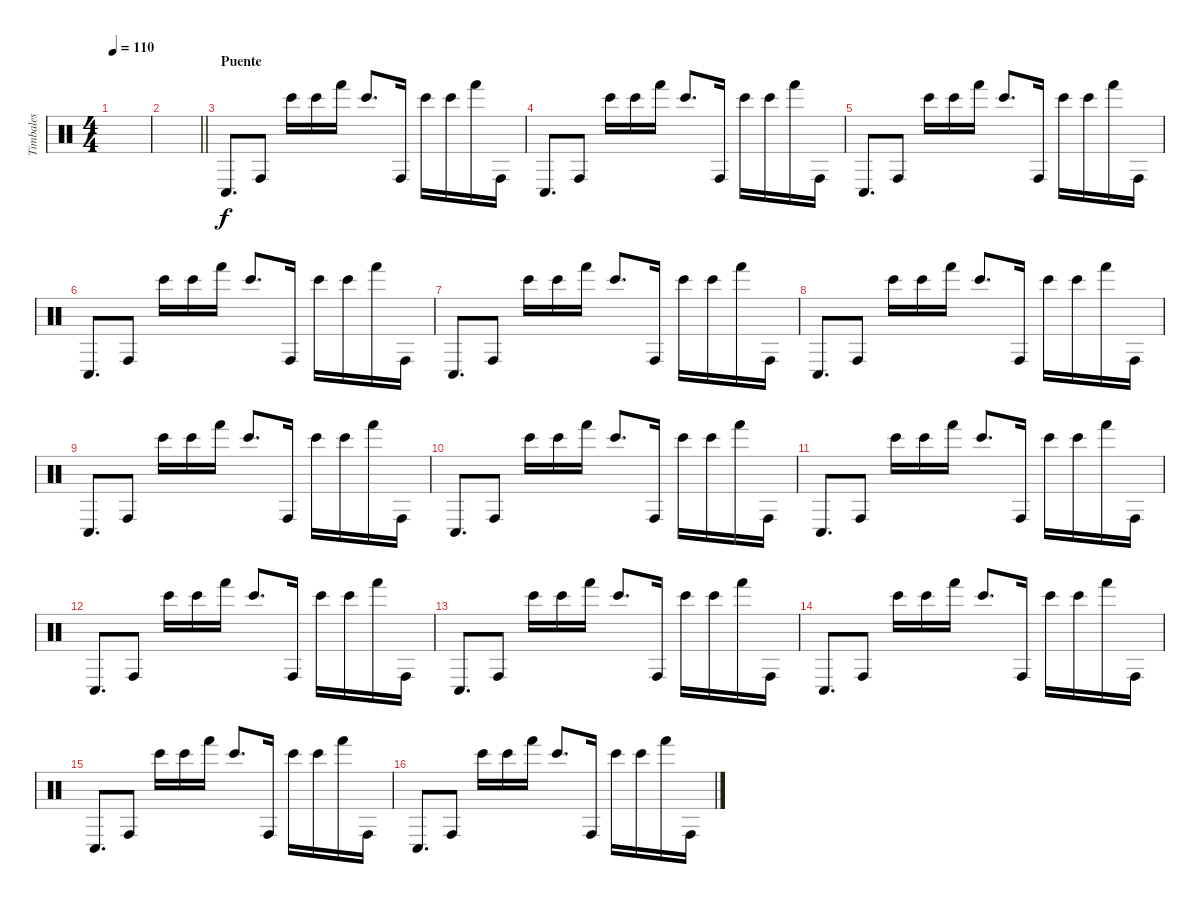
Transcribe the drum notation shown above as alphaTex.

\track ("Timbales" "Timbales") {instrument percussion}
\staff {score}
\articulation defaults
\ts (4 4)
\tempo 110
\clef neutral
\ks c
|
\barLineRight lightlight
|
\section ("" "Puente")
"Conga low (hit)".8{d} "Conga high (hit)".8 "Bongo High (hit)".16 "Bongo High (hit)".16 "Hand (hit)".16 "Bongo High (hit)".8{d} "Conga high (hit)".16 "Bongo High (hit)".16 "Bongo High (hit)".16 "Hand (hit)".16 "Conga high (hit)".16 |
"Conga low (hit)".8{d} "Conga high (hit)".8 "Bongo High (hit)".16 "Bongo High (hit)".16 "Hand (hit)".16 "Bongo High (hit)".8{d} "Conga high (hit)".16 "Bongo High (hit)".16 "Bongo High (hit)".16 "Hand (hit)".16 "Conga high (hit)".16 |
"Conga low (hit)".8{d} "Conga high (hit)".8 "Bongo High (hit)".16 "Bongo High (hit)".16 "Hand (hit)".16 "Bongo High (hit)".8{d} "Conga high (hit)".16 "Bongo High (hit)".16 "Bongo High (hit)".16 "Hand (hit)".16 "Conga high (hit)".16 |
"Conga low (hit)".8{d} "Conga high (hit)".8 "Bongo High (hit)".16 "Bongo High (hit)".16 "Hand (hit)".16 "Bongo High (hit)".8{d} "Conga high (hit)".16 "Bongo High (hit)".16 "Bongo High (hit)".16 "Hand (hit)".16 "Conga high (hit)".16 |
"Conga low (hit)".8{d} "Conga high (hit)".8 "Bongo High (hit)".16 "Bongo High (hit)".16 "Hand (hit)".16 "Bongo High (hit)".8{d} "Conga high (hit)".16 "Bongo High (hit)".16 "Bongo High (hit)".16 "Hand (hit)".16 "Conga high (hit)".16 |
"Conga low (hit)".8{d} "Conga high (hit)".8 "Bongo High (hit)".16 "Bongo High (hit)".16 "Hand (hit)".16 "Bongo High (hit)".8{d} "Conga high (hit)".16 "Bongo High (hit)".16 "Bongo High (hit)".16 "Hand (hit)".16 "Conga high (hit)".16 |
"Conga low (hit)".8{d} "Conga high (hit)".8 "Bongo High (hit)".16 "Bongo High (hit)".16 "Hand (hit)".16 "Bongo High (hit)".8{d} "Conga high (hit)".16 "Bongo High (hit)".16 "Bongo High (hit)".16 "Hand (hit)".16 "Conga high (hit)".16 |
"Conga low (hit)".8{d} "Conga high (hit)".8 "Bongo High (hit)".16 "Bongo High (hit)".16 "Hand (hit)".16 "Bongo High (hit)".8{d} "Conga high (hit)".16 "Bongo High (hit)".16 "Bongo High (hit)".16 "Hand (hit)".16 "Conga high (hit)".16 |
"Conga low (hit)".8{d} "Conga high (hit)".8 "Bongo High (hit)".16 "Bongo High (hit)".16 "Hand (hit)".16 "Bongo High (hit)".8{d} "Conga high (hit)".16 "Bongo High (hit)".16 "Bongo High (hit)".16 "Hand (hit)".16 "Conga high (hit)".16 |
"Conga low (hit)".8{d} "Conga high (hit)".8 "Bongo High (hit)".16 "Bongo High (hit)".16 "Hand (hit)".16 "Bongo High (hit)".8{d} "Conga high (hit)".16 "Bongo High (hit)".16 "Bongo High (hit)".16 "Hand (hit)".16 "Conga high (hit)".16 |
"Conga low (hit)".8{d} "Conga high (hit)".8 "Bongo High (hit)".16 "Bongo High (hit)".16 "Hand (hit)".16 "Bongo High (hit)".8{d} "Conga high (hit)".16 "Bongo High (hit)".16 "Bongo High (hit)".16 "Hand (hit)".16 "Conga high (hit)".16 |
"Conga low (hit)".8{d} "Conga high (hit)".8 "Bongo High (hit)".16 "Bongo High (hit)".16 "Hand (hit)".16 "Bongo High (hit)".8{d} "Conga high (hit)".16 "Bongo High (hit)".16 "Bongo High (hit)".16 "Hand (hit)".16 "Conga high (hit)".16 |
"Conga low (hit)".8{d} "Conga high (hit)".8 "Bongo High (hit)".16 "Bongo High (hit)".16 "Hand (hit)".16 "Bongo High (hit)".8{d} "Conga high (hit)".16 "Bongo High (hit)".16 "Bongo High (hit)".16 "Hand (hit)".16 "Conga high (hit)".16 |
"Conga low (hit)".8{d} "Conga high (hit)".8 "Bongo High (hit)".16 "Bongo High (hit)".16 "Hand (hit)".16 "Bongo High (hit)".8{d} "Conga high (hit)".16 "Bongo High (hit)".16 "Bongo High (hit)".16 "Hand (hit)".16 "Conga high (hit)".16
